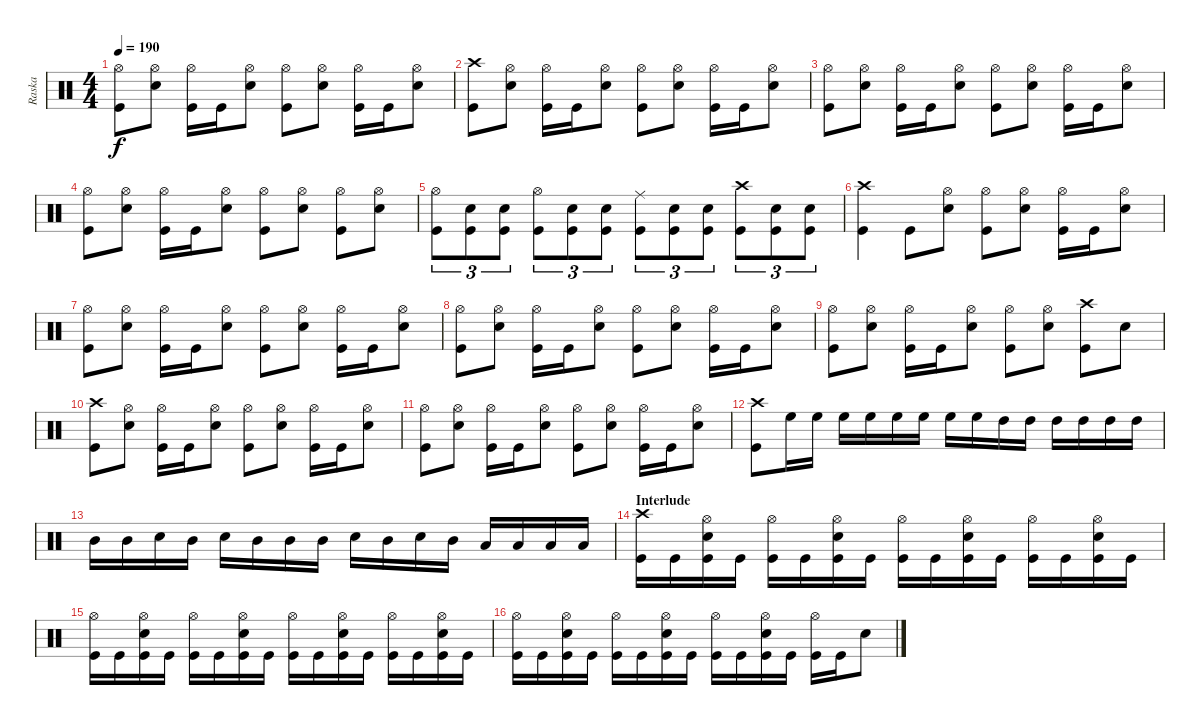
\track ("Raska" "Raska") {instrument percussion}
\staff {score}
\articulation defaults
\ts (4 4)
\tempo 190
\clef neutral
\ks c
("Hi-Hat (open)" "Kick (hit)").8{dy f} ("Hi-Hat (open)" "Electric Snare (hit)").8 ("Hi-Hat (open)" "Kick (hit)").16 "Kick (hit)".16 ("Hi-Hat (open)" "Electric Snare (hit)").8 ("Hi-Hat (open)" "Kick (hit)").8 ("Hi-Hat (open)" "Electric Snare (hit)").8 ("Hi-Hat (open)" "Kick (hit)").16 "Kick (hit)".16 ("Hi-Hat (open)" "Electric Snare (hit)").8 |
("Crash high (hit)" "Kick (hit)").8 ("Hi-Hat (open)" "Electric Snare (hit)").8 ("Hi-Hat (open)" "Kick (hit)").16 "Kick (hit)".16 ("Hi-Hat (open)" "Electric Snare (hit)").8 ("Hi-Hat (open)" "Kick (hit)").8 ("Hi-Hat (open)" "Electric Snare (hit)").8 ("Hi-Hat (open)" "Kick (hit)").16 "Kick (hit)".16 ("Hi-Hat (open)" "Electric Snare (hit)").8 |
("Hi-Hat (open)" "Kick (hit)").8 ("Hi-Hat (open)" "Electric Snare (hit)").8 ("Hi-Hat (open)" "Kick (hit)").16 "Kick (hit)".16 ("Hi-Hat (open)" "Electric Snare (hit)").8 ("Hi-Hat (open)" "Kick (hit)").8 ("Hi-Hat (open)" "Electric Snare (hit)").8 ("Hi-Hat (open)" "Kick (hit)").16 "Kick (hit)".16 ("Hi-Hat (open)" "Electric Snare (hit)").8 |
("Hi-Hat (open)" "Kick (hit)").8 ("Hi-Hat (open)" "Electric Snare (hit)").8 ("Hi-Hat (open)" "Kick (hit)").16 "Kick (hit)".16 ("Hi-Hat (open)" "Electric Snare (hit)").8 ("Hi-Hat (open)" "Kick (hit)").8 ("Hi-Hat (open)" "Electric Snare (hit)").8 ("Hi-Hat (open)" "Kick (hit)").8 ("Hi-Hat (open)" "Electric Snare (hit)").8 |
("Hi-Hat (open)" "Kick (hit)").8{tu (3 2)} ("Electric Snare (hit)" "Kick (hit)").8{tu (3 2)} ("Electric Snare (hit)" "Kick (hit)").8{tu (3 2)} ("Hi-Hat (open)" "Kick (hit)").8{tu (3 2)} ("Electric Snare (hit)" "Kick (hit)").8{tu (3 2)} ("Electric Snare (hit)" "Kick (hit)").8{tu (3 2)} ("Ride (middle)" "Kick (hit)").8{tu (3 2)} ("Electric Snare (hit)" "Kick (hit)").8{tu (3 2)} ("Electric Snare (hit)" "Kick (hit)").8{tu (3 2)} ("Crash high (hit)" "Kick (hit)").8{tu (3 2)} ("Electric Snare (hit)" "Kick (hit)").8{tu (3 2)} ("Electric Snare (hit)" "Kick (hit)").8{tu (3 2)} |
("Crash high (hit)" "Kick (hit)").4 "Kick (hit)".8 ("Hi-Hat (open)" "Electric Snare (hit)").8 ("Hi-Hat (open)" "Kick (hit)").8 ("Hi-Hat (open)" "Electric Snare (hit)").8 ("Hi-Hat (open)" "Kick (hit)").16 "Kick (hit)".16 ("Hi-Hat (open)" "Electric Snare (hit)").8 |
("Hi-Hat (open)" "Kick (hit)").8 ("Hi-Hat (open)" "Electric Snare (hit)").8 ("Hi-Hat (open)" "Kick (hit)").16 "Kick (hit)".16 ("Hi-Hat (open)" "Electric Snare (hit)").8 ("Hi-Hat (open)" "Kick (hit)").8 ("Hi-Hat (open)" "Electric Snare (hit)").8 ("Hi-Hat (open)" "Kick (hit)").16 "Kick (hit)".16 ("Hi-Hat (open)" "Electric Snare (hit)").8 |
("Hi-Hat (open)" "Kick (hit)").8 ("Hi-Hat (open)" "Electric Snare (hit)").8 ("Hi-Hat (open)" "Kick (hit)").16 "Kick (hit)".16 ("Hi-Hat (open)" "Electric Snare (hit)").8 ("Hi-Hat (open)" "Kick (hit)").8 ("Hi-Hat (open)" "Electric Snare (hit)").8 ("Hi-Hat (open)" "Kick (hit)").16 "Kick (hit)".16 ("Hi-Hat (open)" "Electric Snare (hit)").8 |
("Hi-Hat (open)" "Kick (hit)").8 ("Hi-Hat (open)" "Electric Snare (hit)").8 ("Hi-Hat (open)" "Kick (hit)").16 "Kick (hit)".16 ("Hi-Hat (open)" "Electric Snare (hit)").8 ("Hi-Hat (open)" "Kick (hit)").8 ("Hi-Hat (open)" "Electric Snare (hit)").8 ("Crash high (hit)" "Kick (hit)").8 "Electric Snare (hit)".8 |
("Crash high (hit)" "Kick (hit)").8 ("Hi-Hat (open)" "Electric Snare (hit)").8 ("Hi-Hat (open)" "Kick (hit)").16 "Kick (hit)".16 ("Hi-Hat (open)" "Electric Snare (hit)").8 ("Hi-Hat (open)" "Kick (hit)").8 ("Hi-Hat (open)" "Electric Snare (hit)").8 ("Hi-Hat (open)" "Kick (hit)").16 "Kick (hit)".16 ("Hi-Hat (open)" "Electric Snare (hit)").8 |
("Hi-Hat (open)" "Kick (hit)").8 ("Hi-Hat (open)" "Electric Snare (hit)").8 ("Hi-Hat (open)" "Kick (hit)").16 "Kick (hit)".16 ("Hi-Hat (open)" "Electric Snare (hit)").8 ("Hi-Hat (open)" "Kick (hit)").8 ("Hi-Hat (open)" "Electric Snare (hit)").8 ("Hi-Hat (open)" "Kick (hit)").16 "Kick (hit)".16 ("Hi-Hat (open)" "Electric Snare (hit)").8 |
("Crash high (hit)" "Kick (hit)").8 "High Floor Tom (hit)".16 "High Floor Tom (hit)".16 "High Floor Tom (hit)".16 "High Floor Tom (hit)".16 "High Floor Tom (hit)".16 "High Floor Tom (hit)".16 "High Floor Tom (hit)".16 "High Floor Tom (hit)".16 "High Tom (hit)".16 "High Tom (hit)".16 "High Tom (hit)".16 "High Tom (hit)".16 "High Tom (hit)".16 "High Tom (hit)".16 |
"Mid Tom (hit)".16 "Mid Tom (hit)".16 "Electric Snare (hit)".16 "Mid Tom (hit)".16 "Electric Snare (hit)".16 "Mid Tom (hit)".16 "Mid Tom (hit)".16 "Mid Tom (hit)".16 "Electric Snare (hit)".16 "Mid Tom (hit)".16 "Electric Snare (hit)".16 "Mid Tom (hit)".16 "Low Tom (hit)".16 "Low Tom (hit)".16 "Low Tom (hit)".16 "Low Tom (hit)".16 |
\section ("" "Interlude")
("Crash high (hit)" "Kick (hit)").16 "Kick (hit)".16 ("Hi-Hat (open)" "Electric Snare (hit)" "Kick (hit)").16 "Kick (hit)".16 ("Hi-Hat (open)" "Kick (hit)").16 "Kick (hit)".16 ("Hi-Hat (open)" "Electric Snare (hit)" "Kick (hit)").16 "Kick (hit)".16 ("Hi-Hat (open)" "Kick (hit)").16 "Kick (hit)".16 ("Hi-Hat (open)" "Electric Snare (hit)" "Kick (hit)").16 "Kick (hit)".16 ("Hi-Hat (open)" "Kick (hit)").16 "Kick (hit)".16 ("Hi-Hat (open)" "Electric Snare (hit)" "Kick (hit)").16 "Kick (hit)".16 |
("Hi-Hat (open)" "Kick (hit)").16 "Kick (hit)".16 ("Hi-Hat (open)" "Electric Snare (hit)" "Kick (hit)").16 "Kick (hit)".16 ("Hi-Hat (open)" "Kick (hit)").16 "Kick (hit)".16 ("Hi-Hat (open)" "Electric Snare (hit)" "Kick (hit)").16 "Kick (hit)".16 ("Hi-Hat (open)" "Kick (hit)").16 "Kick (hit)".16 ("Hi-Hat (open)" "Electric Snare (hit)" "Kick (hit)").16 "Kick (hit)".16 ("Hi-Hat (open)" "Kick (hit)").16 "Kick (hit)".16 ("Hi-Hat (open)" "Electric Snare (hit)" "Kick (hit)").16 "Kick (hit)".16 |
("Hi-Hat (open)" "Kick (hit)").16 "Kick (hit)".16 ("Hi-Hat (open)" "Electric Snare (hit)" "Kick (hit)").16 "Kick (hit)".16 ("Hi-Hat (open)" "Kick (hit)").16 "Kick (hit)".16 ("Hi-Hat (open)" "Electric Snare (hit)" "Kick (hit)").16 "Kick (hit)".16 ("Hi-Hat (open)" "Kick (hit)").16 "Kick (hit)".16 ("Hi-Hat (open)" "Electric Snare (hit)" "Kick (hit)").16 "Kick (hit)".16 ("Hi-Hat (open)" "Kick (hit)").16 "Kick (hit)".16 "Electric Snare (hit)".8
